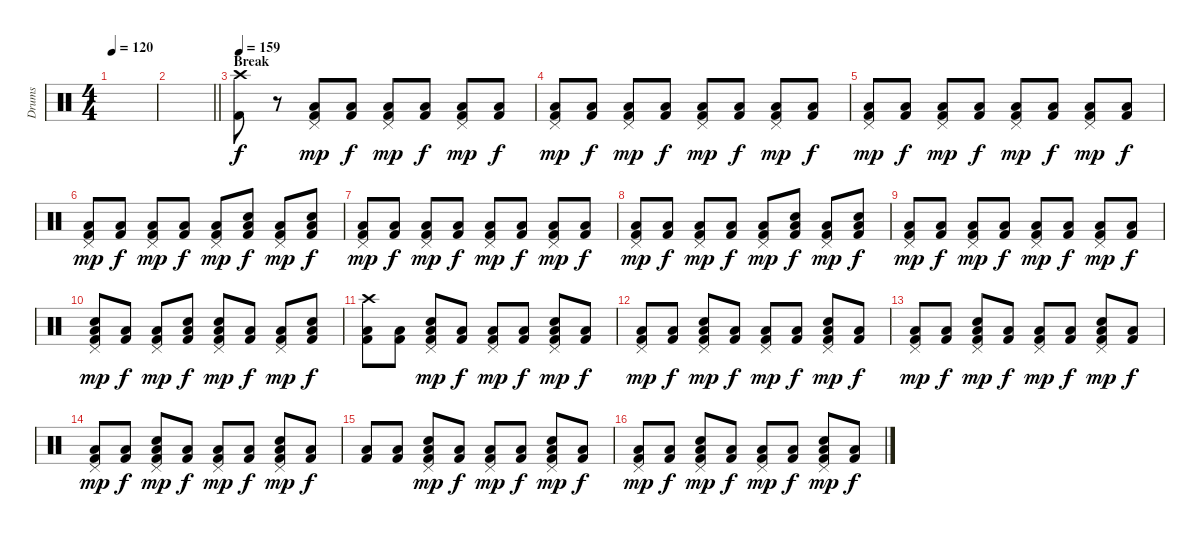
\track ("Drums" "Drums") {instrument percussion}
\staff {score}
\articulation defaults
\ts (4 4)
\tempo 120
\clef neutral
\ks c
|
\barLineRight lightlight
|
\section ("" "Break")
\tempo 159
("Crash high (hit)" "Kick (hit) 2").8 r.8 ("Pedal Hi-Hat (hit)" "Low Floor Tom (hit)" "Kick (hit) 2").8{dy mp} ("Low Floor Tom (hit)" "Kick (hit) 2").8{dy f} ("Pedal Hi-Hat (hit)" "Low Floor Tom (hit)" "Kick (hit) 2").8{dy mp} ("Low Floor Tom (hit)" "Kick (hit) 2").8{dy f} ("Pedal Hi-Hat (hit)" "Low Floor Tom (hit)" "Kick (hit) 2").8{dy mp} ("Low Floor Tom (hit)" "Kick (hit) 2").8{dy f} |
("Pedal Hi-Hat (hit)" "Low Floor Tom (hit)" "Kick (hit) 2").8{dy mp} ("Low Floor Tom (hit)" "Kick (hit) 2").8{dy f} ("Pedal Hi-Hat (hit)" "Low Floor Tom (hit)" "Kick (hit) 2").8{dy mp} ("Low Floor Tom (hit)" "Kick (hit) 2").8{dy f} ("Pedal Hi-Hat (hit)" "Low Floor Tom (hit)" "Kick (hit) 2").8{dy mp} ("Low Floor Tom (hit)" "Kick (hit) 2").8{dy f} ("Pedal Hi-Hat (hit)" "Low Floor Tom (hit)" "Kick (hit) 2").8{dy mp} ("Low Floor Tom (hit)" "Kick (hit) 2").8{dy f} |
("Pedal Hi-Hat (hit)" "Low Floor Tom (hit)" "Kick (hit) 2").8{dy mp} ("Low Floor Tom (hit)" "Kick (hit) 2").8{dy f} ("Pedal Hi-Hat (hit)" "Low Floor Tom (hit)" "Kick (hit) 2").8{dy mp} ("Low Floor Tom (hit)" "Kick (hit) 2").8{dy f} ("Pedal Hi-Hat (hit)" "Low Floor Tom (hit)" "Kick (hit) 2").8{dy mp} ("Low Floor Tom (hit)" "Kick (hit) 2").8{dy f} ("Pedal Hi-Hat (hit)" "Low Floor Tom (hit)" "Kick (hit) 2").8{dy mp} ("Low Floor Tom (hit)" "Kick (hit) 2").8{dy f} |
("Pedal Hi-Hat (hit)" "Low Floor Tom (hit)" "Kick (hit) 2").8{dy mp} ("Low Floor Tom (hit)" "Kick (hit) 2").8{dy f} ("Pedal Hi-Hat (hit)" "Low Floor Tom (hit)" "Kick (hit) 2").8{dy mp} ("Low Floor Tom (hit)" "Kick (hit) 2").8{dy f} ("Pedal Hi-Hat (hit)" "Low Floor Tom (hit)" "Kick (hit) 2").8{dy mp} ("Electric Snare (hit)" "Low Floor Tom (hit)" "Kick (hit) 2").8{dy f} ("Pedal Hi-Hat (hit)" "Low Floor Tom (hit)" "Kick (hit) 2").8{dy mp} ("Electric Snare (hit)" "Low Floor Tom (hit)" "Kick (hit) 2").8{dy f} |
("Pedal Hi-Hat (hit)" "Low Floor Tom (hit)" "Kick (hit) 2").8{dy mp} ("Low Floor Tom (hit)" "Kick (hit) 2").8{dy f} ("Pedal Hi-Hat (hit)" "Low Floor Tom (hit)" "Kick (hit) 2").8{dy mp} ("Low Floor Tom (hit)" "Kick (hit) 2").8{dy f} ("Pedal Hi-Hat (hit)" "Low Floor Tom (hit)" "Kick (hit) 2").8{dy mp} ("Low Floor Tom (hit)" "Kick (hit) 2").8{dy f} ("Pedal Hi-Hat (hit)" "Low Floor Tom (hit)" "Kick (hit) 2").8{dy mp} ("Low Floor Tom (hit)" "Kick (hit) 2").8{dy f} |
("Pedal Hi-Hat (hit)" "Low Floor Tom (hit)" "Kick (hit) 2").8{dy mp} ("Low Floor Tom (hit)" "Kick (hit) 2").8{dy f} ("Pedal Hi-Hat (hit)" "Low Floor Tom (hit)" "Kick (hit) 2").8{dy mp} ("Low Floor Tom (hit)" "Kick (hit) 2").8{dy f} ("Pedal Hi-Hat (hit)" "Low Floor Tom (hit)" "Kick (hit) 2").8{dy mp} ("Electric Snare (hit)" "Low Floor Tom (hit)" "Kick (hit) 2").8{dy f} ("Pedal Hi-Hat (hit)" "Low Floor Tom (hit)" "Kick (hit) 2").8{dy mp} ("Electric Snare (hit)" "Low Floor Tom (hit)" "Kick (hit) 2").8{dy f} |
("Pedal Hi-Hat (hit)" "Low Floor Tom (hit)" "Kick (hit) 2").8{dy mp} ("Low Floor Tom (hit)" "Kick (hit) 2").8{dy f} ("Pedal Hi-Hat (hit)" "Low Floor Tom (hit)" "Kick (hit) 2").8{dy mp} ("Low Floor Tom (hit)" "Kick (hit) 2").8{dy f} ("Pedal Hi-Hat (hit)" "Low Floor Tom (hit)" "Kick (hit) 2").8{dy mp} ("Low Floor Tom (hit)" "Kick (hit) 2").8{dy f} ("Pedal Hi-Hat (hit)" "Low Floor Tom (hit)" "Kick (hit) 2").8{dy mp} ("Low Floor Tom (hit)" "Kick (hit) 2").8{dy f} |
("Pedal Hi-Hat (hit)" "Electric Snare (hit)" "Low Floor Tom (hit)" "Kick (hit) 2").8{dy mp} ("Low Floor Tom (hit)" "Kick (hit) 2").8{dy f} ("Pedal Hi-Hat (hit)" "Low Floor Tom (hit)" "Kick (hit) 2").8{dy mp} ("Electric Snare (hit)" "Low Floor Tom (hit)" "Kick (hit) 2").8{dy f} ("Pedal Hi-Hat (hit)" "Electric Snare (hit)" "Low Floor Tom (hit)" "Kick (hit) 2").8{dy mp} ("Low Floor Tom (hit)" "Kick (hit) 2").8{dy f} ("Pedal Hi-Hat (hit)" "Low Floor Tom (hit)" "Kick (hit) 2").8{dy mp} ("Electric Snare (hit)" "Low Floor Tom (hit)" "Kick (hit) 2").8{dy f} |
("Crash high (hit)" "Low Floor Tom (hit)" "Kick (hit) 2").8 ("Low Floor Tom (hit)" "Kick (hit) 2").8 ("Pedal Hi-Hat (hit)" "Electric Snare (hit)" "Low Floor Tom (hit)" "Kick (hit) 2").8{dy mp} ("Low Floor Tom (hit)" "Kick (hit) 2").8{dy f} ("Pedal Hi-Hat (hit)" "Low Floor Tom (hit)" "Kick (hit) 2").8{dy mp} ("Low Floor Tom (hit)" "Kick (hit) 2").8{dy f} ("Pedal Hi-Hat (hit)" "Electric Snare (hit)" "Low Floor Tom (hit)" "Kick (hit) 2").8{dy mp} ("Low Floor Tom (hit)" "Kick (hit) 2").8{dy f} |
("Pedal Hi-Hat (hit)" "Low Floor Tom (hit)" "Kick (hit) 2").8{dy mp} ("Low Floor Tom (hit)" "Kick (hit) 2").8{dy f} ("Pedal Hi-Hat (hit)" "Electric Snare (hit)" "Low Floor Tom (hit)" "Kick (hit) 2").8{dy mp} ("Low Floor Tom (hit)" "Kick (hit) 2").8{dy f} ("Pedal Hi-Hat (hit)" "Low Floor Tom (hit)" "Kick (hit) 2").8{dy mp} ("Low Floor Tom (hit)" "Kick (hit) 2").8{dy f} ("Pedal Hi-Hat (hit)" "Electric Snare (hit)" "Low Floor Tom (hit)" "Kick (hit) 2").8{dy mp} ("Low Floor Tom (hit)" "Kick (hit) 2").8{dy f} |
("Pedal Hi-Hat (hit)" "Low Floor Tom (hit)" "Kick (hit) 2").8{dy mp} ("Low Floor Tom (hit)" "Kick (hit) 2").8{dy f} ("Pedal Hi-Hat (hit)" "Electric Snare (hit)" "Low Floor Tom (hit)" "Kick (hit) 2").8{dy mp} ("Low Floor Tom (hit)" "Kick (hit) 2").8{dy f} ("Pedal Hi-Hat (hit)" "Low Floor Tom (hit)" "Kick (hit) 2").8{dy mp} ("Low Floor Tom (hit)" "Kick (hit) 2").8{dy f} ("Pedal Hi-Hat (hit)" "Electric Snare (hit)" "Low Floor Tom (hit)" "Kick (hit) 2").8{dy mp} ("Low Floor Tom (hit)" "Kick (hit) 2").8{dy f} |
("Pedal Hi-Hat (hit)" "Low Floor Tom (hit)" "Kick (hit) 2").8{dy mp} ("Low Floor Tom (hit)" "Kick (hit) 2").8{dy f} ("Pedal Hi-Hat (hit)" "Electric Snare (hit)" "Low Floor Tom (hit)" "Kick (hit) 2").8{dy mp} ("Low Floor Tom (hit)" "Kick (hit) 2").8{dy f} ("Pedal Hi-Hat (hit)" "Low Floor Tom (hit)" "Kick (hit) 2").8{dy mp} ("Low Floor Tom (hit)" "Kick (hit) 2").8{dy f} ("Pedal Hi-Hat (hit)" "Electric Snare (hit)" "Low Floor Tom (hit)" "Kick (hit) 2").8{dy mp} ("Low Floor Tom (hit)" "Kick (hit) 2").8{dy f} |
("Low Floor Tom (hit)" "Kick (hit) 2").8 ("Low Floor Tom (hit)" "Kick (hit) 2").8 ("Pedal Hi-Hat (hit)" "Electric Snare (hit)" "Low Floor Tom (hit)" "Kick (hit) 2").8{dy mp} ("Low Floor Tom (hit)" "Kick (hit) 2").8{dy f} ("Pedal Hi-Hat (hit)" "Low Floor Tom (hit)" "Kick (hit) 2").8{dy mp} ("Low Floor Tom (hit)" "Kick (hit) 2").8{dy f} ("Pedal Hi-Hat (hit)" "Electric Snare (hit)" "Low Floor Tom (hit)" "Kick (hit) 2").8{dy mp} ("Low Floor Tom (hit)" "Kick (hit) 2").8{dy f} |
("Pedal Hi-Hat (hit)" "Low Floor Tom (hit)" "Kick (hit) 2").8{dy mp} ("Low Floor Tom (hit)" "Kick (hit) 2").8{dy f} ("Pedal Hi-Hat (hit)" "Electric Snare (hit)" "Low Floor Tom (hit)" "Kick (hit) 2").8{dy mp} ("Low Floor Tom (hit)" "Kick (hit) 2").8{dy f} ("Pedal Hi-Hat (hit)" "Low Floor Tom (hit)" "Kick (hit) 2").8{dy mp} ("Low Floor Tom (hit)" "Kick (hit) 2").8{dy f} ("Pedal Hi-Hat (hit)" "Electric Snare (hit)" "Low Floor Tom (hit)" "Kick (hit) 2").8{dy mp} ("Low Floor Tom (hit)" "Kick (hit) 2").8{dy f}
